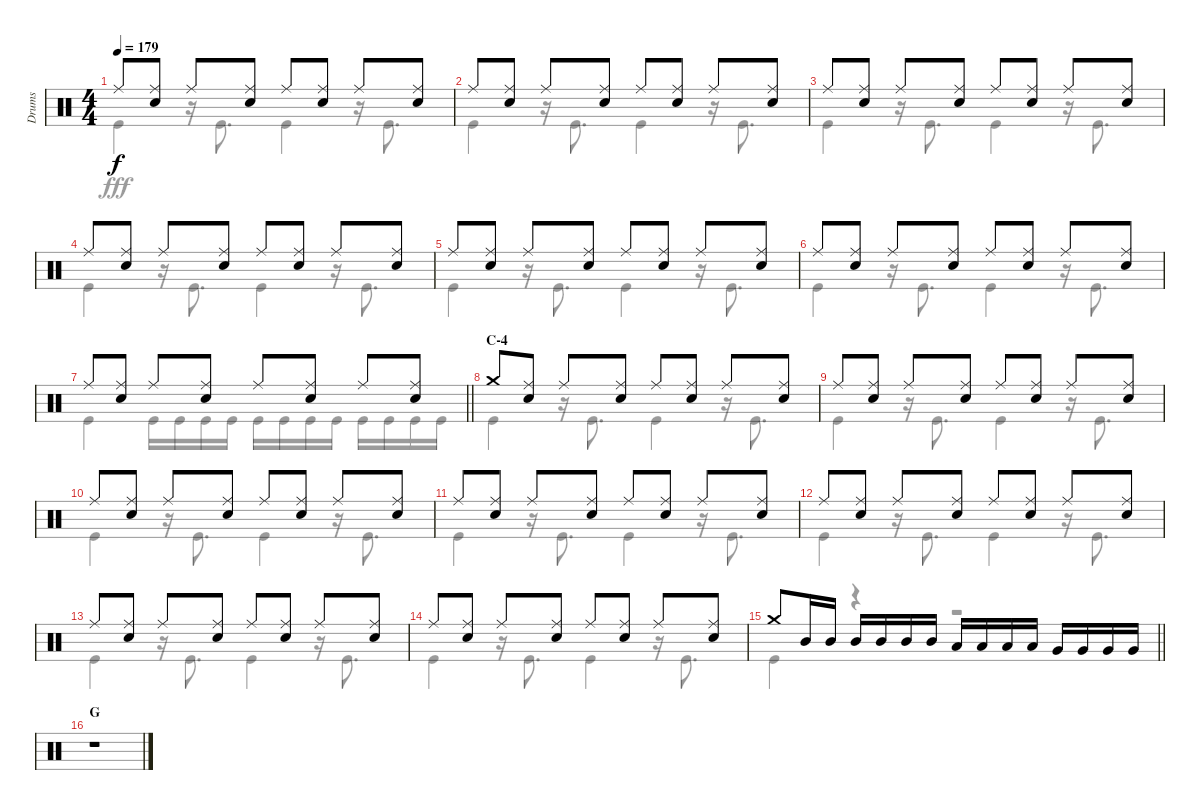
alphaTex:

\track ("Drums" "Drums") {instrument percussion}
\staff {score}
\articulation defaults
\voice
\ts (4 4)
\tempo 179
\clef neutral
\ks c "Ride (middle)".8{dy f}
("Ride (middle)" "Snare (hit) 2").8 "Ride (middle)".8 ("Ride (middle)" "Snare (hit) 2").8 "Ride (middle)".8 ("Ride (middle)" "Snare (hit) 2").8 "Ride (middle)".8 ("Ride (middle)" "Snare (hit) 2").8 |
"Ride (middle)".8 ("Ride (middle)" "Snare (hit) 2").8 "Ride (middle)".8 ("Ride (middle)" "Snare (hit) 2").8 "Ride (middle)".8 ("Ride (middle)" "Snare (hit) 2").8 "Ride (middle)".8 ("Ride (middle)" "Snare (hit) 2").8 |
"Ride (middle)".8 ("Ride (middle)" "Snare (hit) 2").8 "Ride (middle)".8 ("Ride (middle)" "Snare (hit) 2").8 "Ride (middle)".8 ("Ride (middle)" "Snare (hit) 2").8 "Ride (middle)".8 ("Ride (middle)" "Snare (hit) 2").8 |
"Ride (middle)".8 ("Ride (middle)" "Snare (hit) 2").8 "Ride (middle)".8 ("Ride (middle)" "Snare (hit) 2").8 "Ride (middle)".8 ("Ride (middle)" "Snare (hit) 2").8 "Ride (middle)".8 ("Ride (middle)" "Snare (hit) 2").8 |
"Ride (middle)".8 ("Ride (middle)" "Snare (hit) 2").8 "Ride (middle)".8 ("Ride (middle)" "Snare (hit) 2").8 "Ride (middle)".8 ("Ride (middle)" "Snare (hit) 2").8 "Ride (middle)".8 ("Ride (middle)" "Snare (hit) 2").8 |
"Ride (middle)".8 ("Ride (middle)" "Snare (hit) 2").8 "Ride (middle)".8 ("Ride (middle)" "Snare (hit) 2").8 "Ride (middle)".8 ("Ride (middle)" "Snare (hit) 2").8 "Ride (middle)".8 ("Ride (middle)" "Snare (hit) 2").8 |
\barLineRight lightlight "Ride (middle)".8
("Ride (middle)" "Snare (hit) 2").8 "Ride (middle)".8 ("Ride (middle)" "Snare (hit) 2").8 "Ride (middle)".8 ("Ride (middle)" "Snare (hit) 2").8 "Ride (middle)".8 ("Ride (middle)" "Snare (hit) 2").8 |
\section ("" "C-4")
"Crash medium (hit)".8 ("Ride (middle)" "Snare (hit) 2").8 "Ride (middle)".8 ("Ride (middle)" "Snare (hit) 2").8 "Ride (middle)".8 ("Ride (middle)" "Snare (hit) 2").8 "Ride (middle)".8 ("Ride (middle)" "Snare (hit) 2").8 |
"Ride (middle)".8 ("Ride (middle)" "Snare (hit) 2").8 "Ride (middle)".8 ("Ride (middle)" "Snare (hit) 2").8 "Ride (middle)".8 ("Ride (middle)" "Snare (hit) 2").8 "Ride (middle)".8 ("Ride (middle)" "Snare (hit) 2").8 |
"Ride (middle)".8 ("Ride (middle)" "Snare (hit) 2").8 "Ride (middle)".8 ("Ride (middle)" "Snare (hit) 2").8 "Ride (middle)".8 ("Ride (middle)" "Snare (hit) 2").8 "Ride (middle)".8 ("Ride (middle)" "Snare (hit) 2").8 |
"Ride (middle)".8 ("Ride (middle)" "Snare (hit) 2").8 "Ride (middle)".8 ("Ride (middle)" "Snare (hit) 2").8 "Ride (middle)".8 ("Ride (middle)" "Snare (hit) 2").8 "Ride (middle)".8 ("Ride (middle)" "Snare (hit) 2").8 |
"Ride (middle)".8 ("Ride (middle)" "Snare (hit) 2").8 "Ride (middle)".8 ("Ride (middle)" "Snare (hit) 2").8 "Ride (middle)".8 ("Ride (middle)" "Snare (hit) 2").8 "Ride (middle)".8 ("Ride (middle)" "Snare (hit) 2").8 |
"Ride (middle)".8 ("Ride (middle)" "Snare (hit) 2").8 "Ride (middle)".8 ("Ride (middle)" "Snare (hit) 2").8 "Ride (middle)".8 ("Ride (middle)" "Snare (hit) 2").8 "Ride (middle)".8 ("Ride (middle)" "Snare (hit) 2").8 |
"Ride (middle)".8 ("Ride (middle)" "Snare (hit) 2").8 "Ride (middle)".8 ("Ride (middle)" "Snare (hit) 2").8 "Ride (middle)".8 ("Ride (middle)" "Snare (hit) 2").8 "Ride (middle)".8 ("Ride (middle)" "Snare (hit) 2").8 |
\barLineRight lightlight "Crash medium (hit)".8 "Mid Tom (hit)".16 "Mid Tom (hit)".16 "Mid Tom (hit)".16 "Mid Tom (hit)".16 "Mid Tom (hit)".16 "Mid Tom (hit)".16 "Low Tom (hit)".16 "Low Tom (hit)".16 "Low Tom (hit)".16 "Low Tom (hit)".16 "Very Low Tom (hit)".16 "Very Low Tom (hit)".16 "Very Low Tom (hit)".16 "Very Low Tom (hit)".16
|
\section ("" "G")
r.1
\voice
\clef neutral
\ottava regular
\simile none
\ks c "Kick (hit)".4{dy fff}
r.16 "Kick (hit)".8{d} "Kick (hit)".4 r.16 "Kick (hit)".8{d} |
"Kick (hit)".4 r.16 "Kick (hit)".8{d} "Kick (hit)".4 r.16 "Kick (hit)".8{d} |
"Kick (hit)".4 r.16 "Kick (hit)".8{d} "Kick (hit)".4 r.16 "Kick (hit)".8{d} |
"Kick (hit)".4 r.16 "Kick (hit)".8{d} "Kick (hit)".4 r.16 "Kick (hit)".8{d} |
"Kick (hit)".4 r.16 "Kick (hit)".8{d} "Kick (hit)".4 r.16 "Kick (hit)".8{d} |
"Kick (hit)".4 r.16 "Kick (hit)".8{d} "Kick (hit)".4 r.16 "Kick (hit)".8{d} |
\barLineRight lightlight "Kick (hit)".4 "Kick (hit)".16 "Kick (hit)".16 "Kick (hit)".16 "Kick (hit)".16 "Kick (hit)".16 "Kick (hit)".16 "Kick (hit)".16 "Kick (hit)".16 "Kick (hit)".16 "Kick (hit)".16 "Kick (hit)".16 "Kick (hit)".16
|
"Kick (hit)".4 r.16 "Kick (hit)".8{d} "Kick (hit)".4 r.16 "Kick (hit)".8{d} |
"Kick (hit)".4 r.16 "Kick (hit)".8{d} "Kick (hit)".4 r.16 "Kick (hit)".8{d} |
"Kick (hit)".4 r.16 "Kick (hit)".8{d} "Kick (hit)".4 r.16 "Kick (hit)".8{d} |
"Kick (hit)".4 r.16 "Kick (hit)".8{d} "Kick (hit)".4 r.16 "Kick (hit)".8{d} |
"Kick (hit)".4 r.16 "Kick (hit)".8{d} "Kick (hit)".4 r.16 "Kick (hit)".8{d} |
"Kick (hit)".4 r.16 "Kick (hit)".8{d} "Kick (hit)".4 r.16 "Kick (hit)".8{d} |
"Kick (hit)".4 r.16 "Kick (hit)".8{d} "Kick (hit)".4 r.16 "Kick (hit)".8{d} |
\barLineRight lightlight "Kick (hit)".4
r.4 r.2 |
r.1
